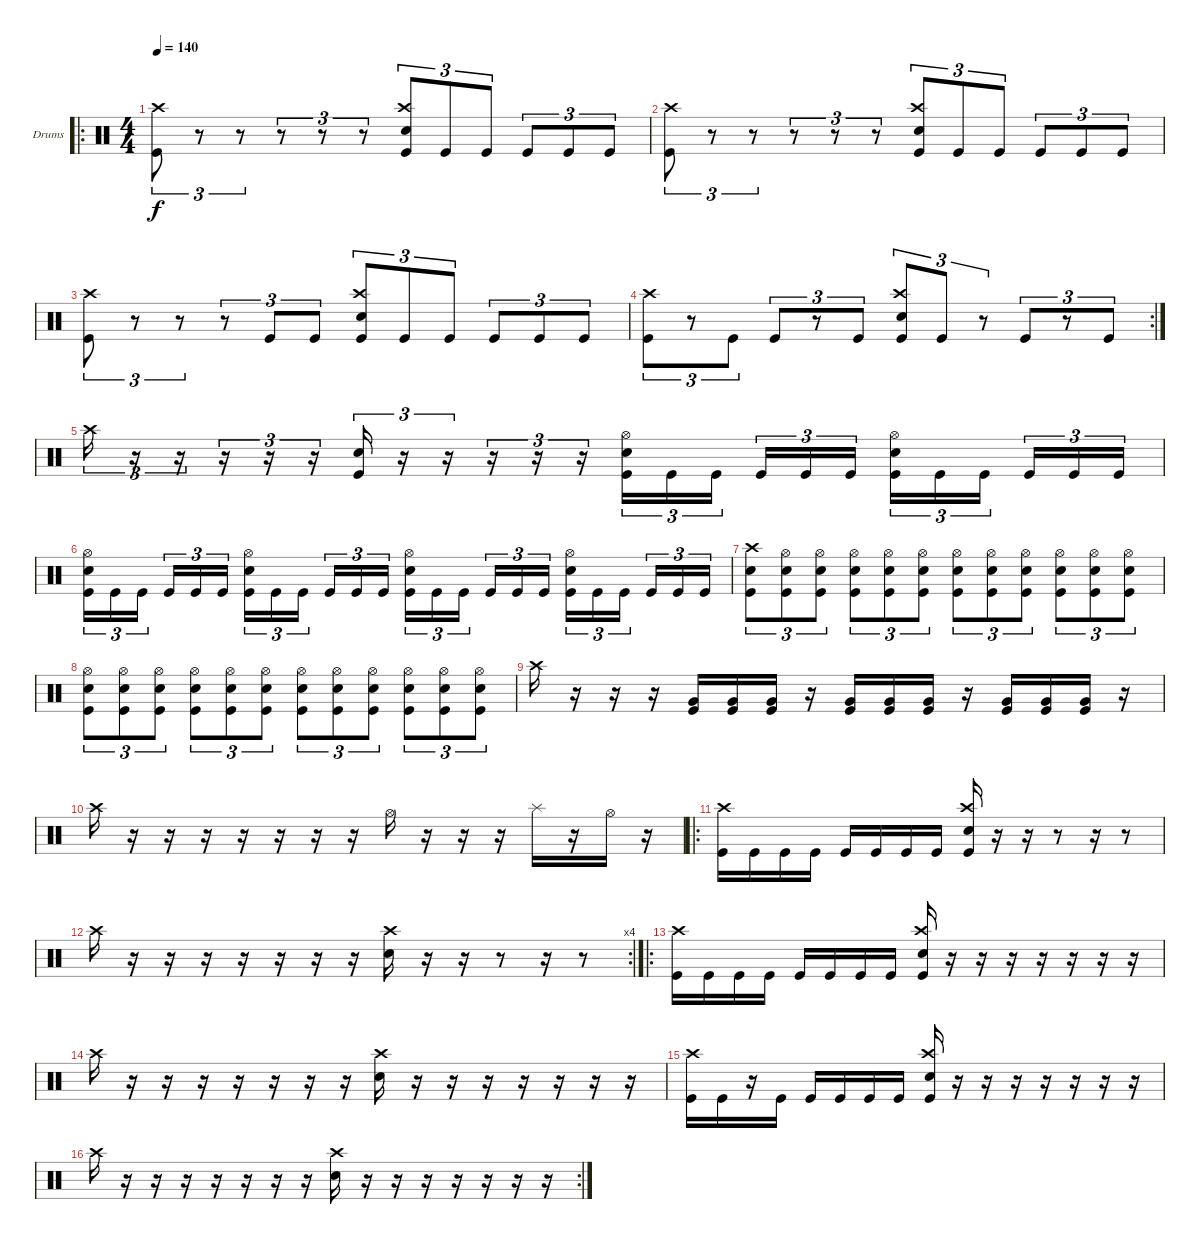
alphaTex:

\bracketExtendMode groupsimilarinstruments
\firstSystemTrackNameOrientation horizontal
\otherSystemsTrackNameOrientation horizontal
\track ("Drumkit" "Drums") {instrument percussion}
\staff {score}
\articulation defaults
\ro
\ts (4 4)
\tempo 140
\clef neutral
\ks c
("Kick (hit)" "Crash high (hit)").8{tu (3 2) dy f} r.8{tu (3 2)} r.8{tu (3 2)} r.8{tu (3 2)} r.8{tu (3 2)} r.8{tu (3 2)} ("Kick (hit)" "Crash high (hit)" "Snare (hit) 2").8{tu (3 2)} "Kick (hit)".8{tu (3 2)} "Kick (hit)".8{tu (3 2)} "Kick (hit)".8{tu (3 2)} "Kick (hit)".8{tu (3 2)} "Kick (hit)".8{tu (3 2)} |
("Kick (hit)" "Crash high (hit)").8{tu (3 2)} r.8{tu (3 2)} r.8{tu (3 2)} r.8{tu (3 2)} r.8{tu (3 2)} r.8{tu (3 2)} ("Kick (hit)" "Crash high (hit)" "Snare (hit) 2").8{tu (3 2)} "Kick (hit)".8{tu (3 2)} "Kick (hit)".8{tu (3 2)} "Kick (hit)".8{tu (3 2)} "Kick (hit)".8{tu (3 2)} "Kick (hit)".8{tu (3 2)} |
("Kick (hit)" "Crash high (hit)").8{tu (3 2)} r.8{tu (3 2)} r.8{tu (3 2)} r.8{tu (3 2)} "Kick (hit)".8{tu (3 2)} "Kick (hit)".8{tu (3 2)} ("Kick (hit)" "Crash high (hit)" "Snare (hit) 2").8{tu (3 2)} "Kick (hit)".8{tu (3 2)} "Kick (hit)".8{tu (3 2)} "Kick (hit)".8{tu (3 2)} "Kick (hit)".8{tu (3 2)} "Kick (hit)".8{tu (3 2)} |
\rc 2
("Kick (hit)" "Crash high (hit)").8{tu (3 2)} r.8{tu (3 2)} "Kick (hit)".8{tu (3 2)} "Kick (hit)".8{tu (3 2)} r.8{tu (3 2)} "Kick (hit)".8{tu (3 2)} ("Kick (hit)" "Crash high (hit)" "Snare (hit) 2").8{tu (3 2)} "Kick (hit)".8{tu (3 2)} r.8{tu (3 2)} "Kick (hit)".8{tu (3 2)} r.8{tu (3 2)} "Kick (hit)".8{tu (3 2)} |
"Crash high (hit)".16{tu (3 2)} r.16{tu (3 2)} r.16{tu (3 2)} r.16{tu (3 2)} r.16{tu (3 2)} r.16{tu (3 2)} ("Snare (hit) 2" "Kick (hit)").16{tu (3 2)} r.16{tu (3 2)} r.16{tu (3 2)} r.16{tu (3 2)} r.16{tu (3 2)} r.16{tu (3 2)} ("Kick (hit)" "Snare (hit) 2" "Hi-Hat (open)").16{tu (3 2)} "Kick (hit)".16{tu (3 2)} "Kick (hit)".16{tu (3 2)} "Kick (hit)".16{tu (3 2)} "Kick (hit)".16{tu (3 2)} "Kick (hit)".16{tu (3 2)} ("Kick (hit)" "Snare (hit) 2" "Hi-Hat (open)").16{tu (3 2)} "Kick (hit)".16{tu (3 2)} "Kick (hit)".16{tu (3 2)} "Kick (hit)".16{tu (3 2)} "Kick (hit)".16{tu (3 2)} "Kick (hit)".16{tu (3 2)} |
("Kick (hit)" "Snare (hit) 2" "Hi-Hat (open)").16{tu (3 2)} "Kick (hit)".16{tu (3 2)} "Kick (hit)".16{tu (3 2)} "Kick (hit)".16{tu (3 2)} "Kick (hit)".16{tu (3 2)} "Kick (hit)".16{tu (3 2)} ("Kick (hit)" "Snare (hit) 2" "Hi-Hat (open)").16{tu (3 2)} "Kick (hit)".16{tu (3 2)} "Kick (hit)".16{tu (3 2)} "Kick (hit)".16{tu (3 2)} "Kick (hit)".16{tu (3 2)} "Kick (hit)".16{tu (3 2)} ("Kick (hit)" "Snare (hit) 2" "Hi-Hat (open)").16{tu (3 2)} "Kick (hit)".16{tu (3 2)} "Kick (hit)".16{tu (3 2)} "Kick (hit)".16{tu (3 2)} "Kick (hit)".16{tu (3 2)} "Kick (hit)".16{tu (3 2)} ("Kick (hit)" "Hi-Hat (open)" "Snare (hit) 2").16{tu (3 2)} "Kick (hit)".16{tu (3 2)} "Kick (hit)".16{tu (3 2)} "Kick (hit)".16{tu (3 2)} "Kick (hit)".16{tu (3 2)} "Kick (hit)".16{tu (3 2)} |
("Kick (hit)" "Snare (hit) 2" "Crash high (hit)").8{tu (3 2)} ("Kick (hit)" "Snare (hit) 2" "Hi-Hat (open)").8{tu (3 2)} ("Kick (hit)" "Snare (hit) 2" "Hi-Hat (open)").8{tu (3 2)} ("Kick (hit)" "Snare (hit) 2" "Hi-Hat (open)").8{tu (3 2)} ("Kick (hit)" "Snare (hit) 2" "Hi-Hat (open)").8{tu (3 2)} ("Kick (hit)" "Snare (hit) 2" "Hi-Hat (open)").8{tu (3 2)} ("Kick (hit)" "Snare (hit) 2" "Hi-Hat (open)").8{tu (3 2)} ("Kick (hit)" "Snare (hit) 2" "Hi-Hat (open)").8{tu (3 2)} ("Kick (hit)" "Snare (hit) 2" "Hi-Hat (open)").8{tu (3 2)} ("Kick (hit)" "Snare (hit) 2" "Hi-Hat (open)").8{tu (3 2)} ("Kick (hit)" "Snare (hit) 2" "Hi-Hat (open)").8{tu (3 2)} ("Kick (hit)" "Snare (hit) 2" "Hi-Hat (open)").8{tu (3 2)} |
("Kick (hit)" "Snare (hit) 2" "Hi-Hat (open)").8{tu (3 2)} ("Kick (hit)" "Snare (hit) 2" "Hi-Hat (open)").8{tu (3 2)} ("Kick (hit)" "Snare (hit) 2" "Hi-Hat (open)").8{tu (3 2)} ("Kick (hit)" "Snare (hit) 2" "Hi-Hat (open)").8{tu (3 2)} ("Kick (hit)" "Snare (hit) 2" "Hi-Hat (open)").8{tu (3 2)} ("Kick (hit)" "Snare (hit) 2" "Hi-Hat (open)").8{tu (3 2)} ("Kick (hit)" "Snare (hit) 2" "Hi-Hat (open)").8{tu (3 2)} ("Kick (hit)" "Snare (hit) 2" "Hi-Hat (open)").8{tu (3 2)} ("Kick (hit)" "Snare (hit) 2" "Hi-Hat (open)").8{tu (3 2)} ("Kick (hit)" "Snare (hit) 2" "Hi-Hat (open)").8{tu (3 2)} ("Kick (hit)" "Snare (hit) 2" "Hi-Hat (open)").8{tu (3 2)} ("Kick (hit)" "Snare (hit) 2" "Hi-Hat (open)").8{tu (3 2)} |
"Crash high (hit)".16 r.16 r.16 r.16 ("Kick (hit)" "Very Low Tom (hit)").16 ("Very Low Tom (hit)" "Kick (hit)").16 ("Very Low Tom (hit)" "Kick (hit)").16 r.16 ("Kick (hit)" "Very Low Tom (hit)").16 ("Kick (hit)" "Very Low Tom (hit)").16 ("Very Low Tom (hit)" "Kick (hit)").16 r.16 ("Kick (hit)" "Very Low Tom (hit)").16 ("Very Low Tom (hit)" "Kick (hit)").16 ("Very Low Tom (hit)" "Kick (hit)").16 r.16 |
"Crash high (hit)".16 r.16 r.16 r.16 r.16 r.16 r.16 r.16 "Hi-Hat (open)".16 r.16 r.16 r.16 "Splash (hit)".16 r.16 "Hi-Hat (open)".16 r.16 |
\ro
("Crash high (hit)" "Kick (hit)").16 "Kick (hit)".16 "Kick (hit)".16 "Kick (hit)".16 "Kick (hit)".16 "Kick (hit)".16 "Kick (hit)".16 "Kick (hit)".16 ("Crash high (hit)" "Snare (hit) 2" "Kick (hit)").16 r.16 r.16 r.8 r.16 r.8 |
\rc 4 "Crash high (hit)".16
r.16 r.16 r.16 r.16 r.16 r.16 r.16 ("Crash high (hit)" "Snare (hit) 2").16 r.16 r.16 r.8 r.16 r.8 |
\ro
("Kick (hit)" "Crash high (hit)").16 "Kick (hit)".16 "Kick (hit)".16 "Kick (hit)".16 "Kick (hit)".16 "Kick (hit)".16 "Kick (hit)".16 "Kick (hit)".16 ("Kick (hit)" "Crash high (hit)" "Snare (hit) 2").16 r.16 r.16 r.16 r.16 r.16 r.16 r.16 |
"Crash high (hit)".16 r.16 r.16 r.16 r.16 r.16 r.16 r.16 ("Crash high (hit)" "Snare (hit) 2").16 r.16 r.16 r.16 r.16 r.16 r.16 r.16 |
("Kick (hit)" "Crash high (hit)").16 "Kick (hit)".16 r.16 "Kick (hit)".16 "Kick (hit)".16 "Kick (hit)".16 "Kick (hit)".16 "Kick (hit)".16 ("Kick (hit)" "Crash high (hit)" "Snare (hit) 2").16 r.16 r.16 r.16 r.16 r.16 r.16 r.16 |
\rc 2 "Crash high (hit)".16
r.16 r.16 r.16 r.16 r.16 r.16 r.16 ("Crash high (hit)" "Snare (hit) 2").16 r.16 r.16 r.16 r.16 r.16 r.16 r.16
